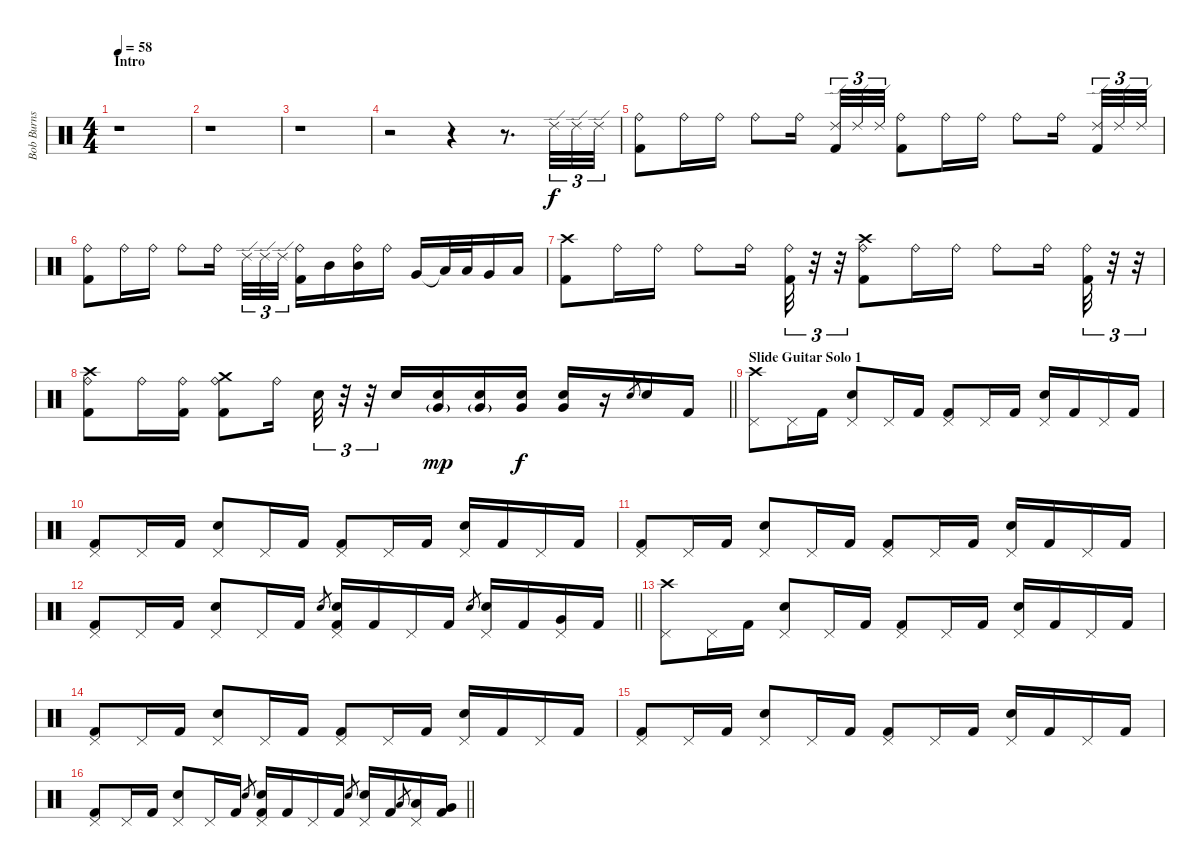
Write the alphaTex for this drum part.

\track ("Bob Burns (drums and percussion)" "Bob Burns ") {instrument percussion}
\staff {score}
\articulation defaults
\ts (4 4)
\section ("" "Intro")
\tempo 58
\clef neutral
\ks c
r.1{dy f} |
r.1 |
r.1 |
r.2 r.4 r.8{d} "Ride (edge) 2".32{tu (3 2)} "Ride (edge) 2".32{tu (3 2)} "Ride (edge) 2".32{tu (3 2)} |
("Kick (hit) 2" "Ride (bell)").8 "Ride (bell)".16 "Ride (bell)".16 "Ride (bell)".8 "Ride (bell)".16{beam splitsecondary} ("Kick (hit) 2" "Ride (edge) 2").32{tu (3 2)} "Ride (edge) 2".32{tu (3 2)} "Ride (edge) 2".32{tu (3 2)} ("Kick (hit) 2" "Ride (bell)").8 "Ride (bell)".16 "Ride (bell)".16 "Ride (bell)".8 "Ride (bell)".16{beam splitsecondary} ("Kick (hit) 2" "Ride (edge) 2").32{tu (3 2)} "Ride (edge) 2".32{tu (3 2)} "Ride (edge) 2".32{tu (3 2)} |
("Kick (hit) 2" "Ride (bell)").8 "Ride (bell)".16 "Ride (bell)".16 "Ride (bell)".8 "Ride (bell)".16{beam splitsecondary} "Ride (edge) 2".32{tu (3 2)} "Ride (edge) 2".32{tu (3 2)} "Ride (edge) 2".32{tu (3 2)} ("Kick (hit) 2" "Ride (bell)").16 "Mid Tom (hit)".16 ("Mid Tom (hit)" "Ride (bell)").16 "Ride (bell)".16 "Very Low Tom (hit)".16 "Low Tom (hit)"{t}.32 "Low Tom (hit)".32 "Very Low Tom (hit)".16 "Low Floor Tom (hit)".16 |
("Crash high (hit)" "Kick (hit) 2").8 "Ride (bell)".16 "Ride (bell)".16 "Ride (bell)".8 "Ride (bell)".16 ("Kick (hit) 2" "Ride (bell)").32{tu (3 2)} r.32{tu (3 2)} r.32{tu (3 2)} ("Crash high (hit)" "Kick (hit) 2" "Ride (bell)").8 "Ride (bell)".16 "Ride (bell)".16 "Ride (bell)".8 "Ride (bell)".16 ("Kick (hit) 2" "Ride (bell)").32{tu (3 2)} r.32{tu (3 2)} r.32{tu (3 2)} |
\barLineRight lightlight
("Crash high (hit)" "Kick (hit) 2" "Ride (bell)").8 "Ride (bell)".16 ("Kick (hit) 2" "Ride (bell)").16 ("Crash medium (hit)" "Kick (hit) 2" "Ride (bell)").8 "Ride (bell)".16 "Electric Snare (hit)".32{tu (3 2)} r.32{tu (3 2)} r.32{tu (3 2)} "Electric Snare (hit)".16 ("Electric Snare (hit)" "Very Low Tom (hit)"{g}).16{dy mp} ("Electric Snare (hit)" "Very Low Tom (hit)"{g}).16 ("Electric Snare (hit)" "Very Low Tom (hit)").16{dy f} ("Electric Snare (hit)" "Very Low Tom (hit)").16 r.16 "Electric Snare (hit)".8{gr} "Electric Snare (hit)".16 "Kick (hit) 2".16 |
\section ("" "Slide Guitar Solo 1")
("Crash high (hit)" "Pedal Hi-Hat (hit)").8 "Pedal Hi-Hat (hit)".16 "Kick (hit) 2".16 ("Pedal Hi-Hat (hit)" "Electric Snare (hit)").8 "Pedal Hi-Hat (hit)".16 "Kick (hit) 2".16 ("Pedal Hi-Hat (hit)" "Kick (hit) 2").8 "Pedal Hi-Hat (hit)".16 "Kick (hit) 2".16 ("Pedal Hi-Hat (hit)" "Electric Snare (hit)").16 "Kick (hit) 2".16 "Pedal Hi-Hat (hit)".16 "Kick (hit) 2".16 |
("Pedal Hi-Hat (hit)" "Kick (hit) 2").8 "Pedal Hi-Hat (hit)".16 "Kick (hit) 2".16 ("Pedal Hi-Hat (hit)" "Electric Snare (hit)").8 "Pedal Hi-Hat (hit)".16 "Kick (hit) 2".16 ("Pedal Hi-Hat (hit)" "Kick (hit) 2").8 "Pedal Hi-Hat (hit)".16 "Kick (hit) 2".16 ("Pedal Hi-Hat (hit)" "Electric Snare (hit)").16 "Kick (hit) 2".16 "Pedal Hi-Hat (hit)".16 "Kick (hit) 2".16 |
("Pedal Hi-Hat (hit)" "Kick (hit) 2").8 "Pedal Hi-Hat (hit)".16 "Kick (hit) 2".16 ("Pedal Hi-Hat (hit)" "Electric Snare (hit)").8 "Pedal Hi-Hat (hit)".16 "Kick (hit) 2".16 ("Pedal Hi-Hat (hit)" "Kick (hit) 2").8 "Pedal Hi-Hat (hit)".16 "Kick (hit) 2".16 ("Pedal Hi-Hat (hit)" "Electric Snare (hit)").16 "Kick (hit) 2".16 "Pedal Hi-Hat (hit)".16 "Kick (hit) 2".16 |
\barLineRight lightlight
("Pedal Hi-Hat (hit)" "Kick (hit) 2").8 "Pedal Hi-Hat (hit)".16 "Kick (hit) 2".16 ("Pedal Hi-Hat (hit)" "Electric Snare (hit)").8 "Pedal Hi-Hat (hit)".16 "Kick (hit) 2".16 "Electric Snare (hit)".8{gr} ("Pedal Hi-Hat (hit)" "Electric Snare (hit)" "Kick (hit) 2").16 "Kick (hit) 2".16 "Pedal Hi-Hat (hit)".16 "Kick (hit) 2".16 "Electric Snare (hit)".8{gr} ("Pedal Hi-Hat (hit)" "Electric Snare (hit)").16 "Kick (hit) 2".16 ("Pedal Hi-Hat (hit)" "Very Low Tom (hit)").16 "Kick (hit) 2".16 |
("Crash high (hit)" "Pedal Hi-Hat (hit)").8 "Pedal Hi-Hat (hit)".16 "Kick (hit) 2".16 ("Pedal Hi-Hat (hit)" "Electric Snare (hit)").8 "Pedal Hi-Hat (hit)".16 "Kick (hit) 2".16 ("Pedal Hi-Hat (hit)" "Kick (hit) 2").8 "Pedal Hi-Hat (hit)".16 "Kick (hit) 2".16 ("Pedal Hi-Hat (hit)" "Electric Snare (hit)").16 "Kick (hit) 2".16 "Pedal Hi-Hat (hit)".16 "Kick (hit) 2".16 |
("Pedal Hi-Hat (hit)" "Kick (hit) 2").8 "Pedal Hi-Hat (hit)".16 "Kick (hit) 2".16 ("Pedal Hi-Hat (hit)" "Electric Snare (hit)").8 "Pedal Hi-Hat (hit)".16 "Kick (hit) 2".16 ("Pedal Hi-Hat (hit)" "Kick (hit) 2").8 "Pedal Hi-Hat (hit)".16 "Kick (hit) 2".16 ("Pedal Hi-Hat (hit)" "Electric Snare (hit)").16 "Kick (hit) 2".16 "Pedal Hi-Hat (hit)".16 "Kick (hit) 2".16 |
("Pedal Hi-Hat (hit)" "Kick (hit) 2").8 "Pedal Hi-Hat (hit)".16 "Kick (hit) 2".16 ("Pedal Hi-Hat (hit)" "Electric Snare (hit)").8 "Pedal Hi-Hat (hit)".16 "Kick (hit) 2".16 ("Pedal Hi-Hat (hit)" "Kick (hit) 2").8 "Pedal Hi-Hat (hit)".16 "Kick (hit) 2".16 ("Pedal Hi-Hat (hit)" "Electric Snare (hit)").16 "Kick (hit) 2".16 "Pedal Hi-Hat (hit)".16 "Kick (hit) 2".16 |
\barLineRight lightlight
("Pedal Hi-Hat (hit)" "Kick (hit) 2").8 "Pedal Hi-Hat (hit)".16 "Kick (hit) 2".16 ("Pedal Hi-Hat (hit)" "Electric Snare (hit)").8 "Pedal Hi-Hat (hit)".16 "Kick (hit) 2".16 "Electric Snare (hit)".8{gr} ("Pedal Hi-Hat (hit)" "Electric Snare (hit)" "Kick (hit) 2").16 "Kick (hit) 2".16 "Pedal Hi-Hat (hit)".16 "Kick (hit) 2".16 "Electric Snare (hit)".8{gr} ("Pedal Hi-Hat (hit)" "Electric Snare (hit)").16 "Kick (hit) 2".16 "Low Tom (hit)".8{gr} ("Pedal Hi-Hat (hit)" "Low Tom (hit)").16 ("Very Low Tom (hit)" "Kick (hit) 2").16
